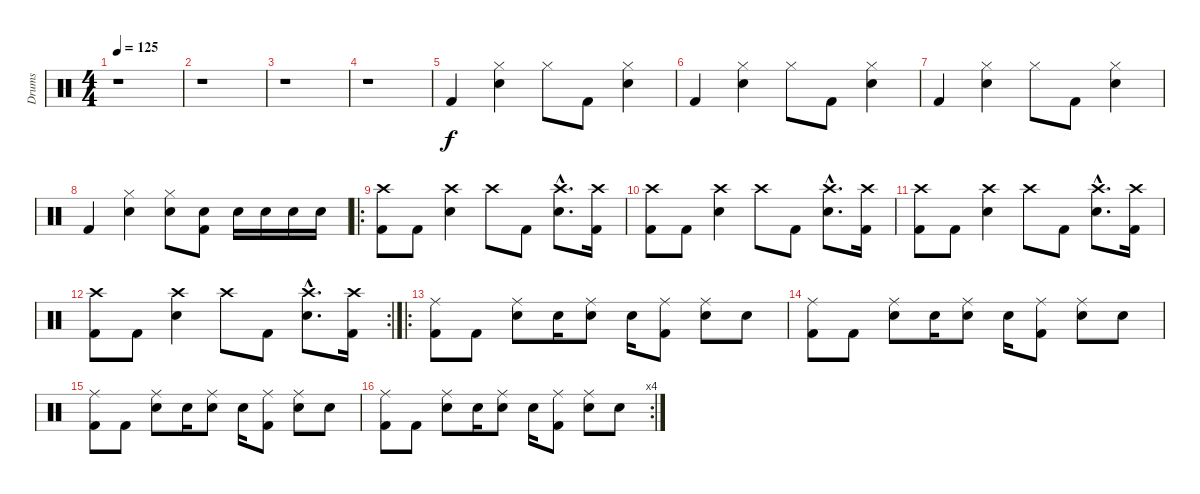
\track ("Drums" "Drums") {instrument percussion}
\staff {score}
\articulation defaults
\ts (4 4)
\tempo 125
\clef neutral
\ks c
r.1{dy f} |
r.1 |
r.1 |
r.1 |
"Kick (hit) 2".4 ("Hi-Hat (closed)" "Snare (hit) 2").4 "Hi-Hat (closed)".8 "Kick (hit) 2".8 ("Hi-Hat (closed)" "Snare (hit) 2").4 |
"Kick (hit) 2".4 ("Hi-Hat (closed)" "Snare (hit) 2").4 "Hi-Hat (closed)".8 "Kick (hit) 2".8 ("Hi-Hat (closed)" "Snare (hit) 2").4 |
"Kick (hit) 2".4 ("Hi-Hat (closed)" "Snare (hit) 2").4 "Hi-Hat (closed)".8 "Kick (hit) 2".8 ("Hi-Hat (closed)" "Snare (hit) 2").4 |
"Kick (hit) 2".4 ("Hi-Hat (closed)" "Snare (hit) 2").4 ("Hi-Hat (closed)" "Snare (hit) 2").8 ("Snare (hit) 2" "Kick (hit) 2").8 "Snare (hit) 2".16 "Snare (hit) 2".16 "Snare (hit) 2".16 "Snare (hit) 2".16 |
\ro
("Crash high (hit)" "Kick (hit) 2").8 "Kick (hit) 2".8 ("Crash high (hit)" "Snare (hit) 2").4 "Crash high (hit)".8 "Kick (hit) 2".8 ("Crash high (hit)"{hac} "Snare (hit) 2"{hac}).8{d} ("Crash high (hit)" "Kick (hit) 2").16 |
("Crash high (hit)" "Kick (hit) 2").8 "Kick (hit) 2".8 ("Crash high (hit)" "Snare (hit) 2").4 "Crash high (hit)".8 "Kick (hit) 2".8 ("Crash high (hit)"{hac} "Snare (hit) 2"{hac}).8{d} ("Crash high (hit)" "Kick (hit) 2").16 |
("Crash high (hit)" "Kick (hit) 2").8 "Kick (hit) 2".8 ("Crash high (hit)" "Snare (hit) 2").4 "Crash high (hit)".8 "Kick (hit) 2".8 ("Crash high (hit)"{hac} "Snare (hit) 2"{hac}).8{d} ("Crash high (hit)" "Kick (hit) 2").16 |
\rc 2
("Crash high (hit)" "Kick (hit) 2").8 "Kick (hit) 2".8 ("Crash high (hit)" "Snare (hit) 2").4 "Crash high (hit)".8 "Kick (hit) 2".8 ("Crash high (hit)"{hac} "Snare (hit) 2"{hac}).8{d} ("Crash high (hit)" "Kick (hit) 2").16 |
\ro
("Ride (middle)" "Kick (hit) 2").8 "Kick (hit) 2".8 ("Ride (middle)" "Snare (hit) 2").8 "Snare (hit) 2".16 ("Ride (middle)" "Snare (hit) 2").8 "Snare (hit) 2".16 ("Ride (middle)" "Kick (hit) 2").8 ("Ride (middle)" "Snare (hit) 2").8 "Snare (hit) 2".8 |
("Ride (middle)" "Kick (hit) 2").8 "Kick (hit) 2".8 ("Ride (middle)" "Snare (hit) 2").8 "Snare (hit) 2".16 ("Ride (middle)" "Snare (hit) 2").8 "Snare (hit) 2".16 ("Ride (middle)" "Kick (hit) 2").8 ("Ride (middle)" "Snare (hit) 2").8 "Snare (hit) 2".8 |
("Ride (middle)" "Kick (hit) 2").8 "Kick (hit) 2".8 ("Ride (middle)" "Snare (hit) 2").8 "Snare (hit) 2".16 ("Ride (middle)" "Snare (hit) 2").8 "Snare (hit) 2".16 ("Ride (middle)" "Kick (hit) 2").8 ("Ride (middle)" "Snare (hit) 2").8 "Snare (hit) 2".8 |
\rc 4
("Ride (middle)" "Kick (hit) 2").8 "Kick (hit) 2".8 ("Ride (middle)" "Snare (hit) 2").8 "Snare (hit) 2".16 ("Ride (middle)" "Snare (hit) 2").8 "Snare (hit) 2".16 ("Ride (middle)" "Kick (hit) 2").8 ("Ride (middle)" "Snare (hit) 2").8 "Snare (hit) 2".8
